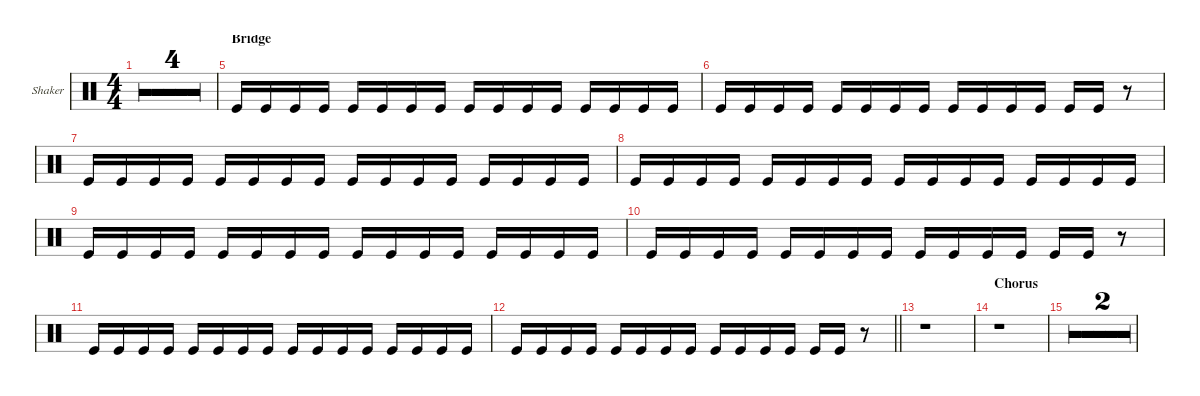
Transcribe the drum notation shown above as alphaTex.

\defaultSystemsLayout 4
\hideDynamics
\bracketExtendMode groupsimilarinstruments
\firstSystemTrackNameOrientation horizontal
\otherSystemsTrackNameOrientation horizontal
\track ("Shaker" "Shaker") {multiBarRest instrument percussion}
\staff {score}
\articulation defaults
\ts (4 4)
\tempo 79
\clef neutral
\ks c
r.1{dy mf} |
r.1 |
r.1 |
\barLineRight lightlight
r.1 |
\section ("" "Bridge")
"Kick (hit)".16 "Kick (hit)".16 "Kick (hit)".16 "Kick (hit)".16 "Kick (hit)".16 "Kick (hit)".16 "Kick (hit)".16 "Kick (hit)".16 "Kick (hit)".16 "Kick (hit)".16 "Kick (hit)".16 "Kick (hit)".16 "Kick (hit)".16 "Kick (hit)".16 "Kick (hit)".16 "Kick (hit)".16 |
"Kick (hit)".16 "Kick (hit)".16 "Kick (hit)".16 "Kick (hit)".16 "Kick (hit)".16 "Kick (hit)".16 "Kick (hit)".16 "Kick (hit)".16 "Kick (hit)".16 "Kick (hit)".16 "Kick (hit)".16 "Kick (hit)".16 "Kick (hit)".16 "Kick (hit)".16 r.8 |
"Kick (hit)".16 "Kick (hit)".16 "Kick (hit)".16 "Kick (hit)".16 "Kick (hit)".16 "Kick (hit)".16 "Kick (hit)".16 "Kick (hit)".16 "Kick (hit)".16 "Kick (hit)".16 "Kick (hit)".16 "Kick (hit)".16 "Kick (hit)".16 "Kick (hit)".16 "Kick (hit)".16 "Kick (hit)".16 |
"Kick (hit)".16 "Kick (hit)".16 "Kick (hit)".16 "Kick (hit)".16 "Kick (hit)".16 "Kick (hit)".16 "Kick (hit)".16 "Kick (hit)".16 "Kick (hit)".16 "Kick (hit)".16 "Kick (hit)".16 "Kick (hit)".16 "Kick (hit)".16 "Kick (hit)".16 "Kick (hit)".16 "Kick (hit)".16 |
"Kick (hit)".16 "Kick (hit)".16 "Kick (hit)".16 "Kick (hit)".16 "Kick (hit)".16 "Kick (hit)".16 "Kick (hit)".16 "Kick (hit)".16 "Kick (hit)".16 "Kick (hit)".16 "Kick (hit)".16 "Kick (hit)".16 "Kick (hit)".16 "Kick (hit)".16 "Kick (hit)".16 "Kick (hit)".16 |
"Kick (hit)".16 "Kick (hit)".16 "Kick (hit)".16 "Kick (hit)".16 "Kick (hit)".16 "Kick (hit)".16 "Kick (hit)".16 "Kick (hit)".16 "Kick (hit)".16 "Kick (hit)".16 "Kick (hit)".16 "Kick (hit)".16 "Kick (hit)".16 "Kick (hit)".16 r.8 |
"Kick (hit)".16 "Kick (hit)".16 "Kick (hit)".16 "Kick (hit)".16 "Kick (hit)".16 "Kick (hit)".16 "Kick (hit)".16 "Kick (hit)".16 "Kick (hit)".16 "Kick (hit)".16 "Kick (hit)".16 "Kick (hit)".16 "Kick (hit)".16 "Kick (hit)".16 "Kick (hit)".16 "Kick (hit)".16 |
\barLineRight lightlight "Kick (hit)".16 "Kick (hit)".16 "Kick (hit)".16 "Kick (hit)".16 "Kick (hit)".16 "Kick (hit)".16 "Kick (hit)".16 "Kick (hit)".16 "Kick (hit)".16 "Kick (hit)".16 "Kick (hit)".16 "Kick (hit)".16 "Kick (hit)".16 "Kick (hit)".16
r.8 |
r.1 |
\section ("" "Chorus")
r.1 |
r.1 |
r.1
